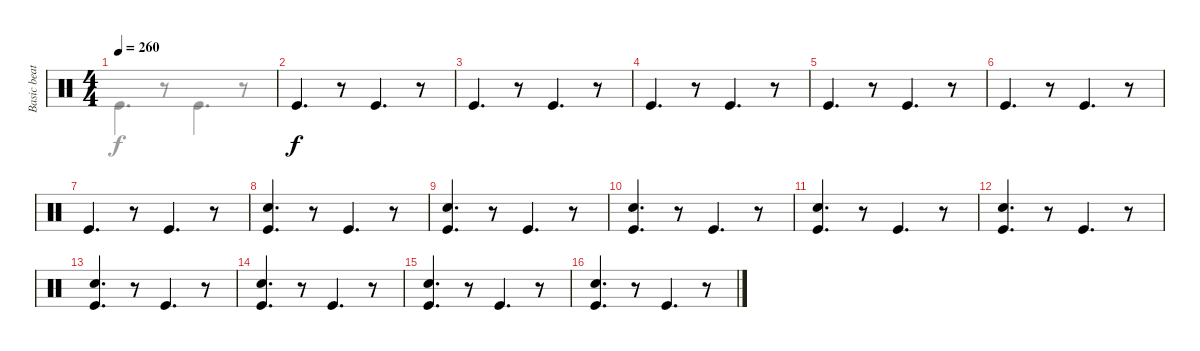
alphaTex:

\track ("Basic beat" "Basic beat") {instrument percussion}
\staff {score}
\articulation defaults
\voice
\ts (4 4)
\tempo 260
\clef neutral
\ks c
|
"Kick (hit)".4{d} r.8 "Kick (hit)".4{d} r.8 |
"Kick (hit)".4{d} r.8 "Kick (hit)".4{d} r.8 |
"Kick (hit)".4{d} r.8 "Kick (hit)".4{d} r.8 |
"Kick (hit)".4{d} r.8 "Kick (hit)".4{d} r.8 |
"Kick (hit)".4{d} r.8 "Kick (hit)".4{d} r.8 |
"Kick (hit)".4{d} r.8 "Kick (hit)".4{d} r.8 |
("Snare (hit) 2" "Kick (hit)").4{d} r.8 "Kick (hit)".4{d} r.8 |
("Snare (hit) 2" "Kick (hit)").4{d} r.8 "Kick (hit)".4{d} r.8 |
("Snare (hit) 2" "Kick (hit)").4{d} r.8 "Kick (hit)".4{d} r.8 |
("Snare (hit) 2" "Kick (hit)").4{d} r.8 "Kick (hit)".4{d} r.8 |
("Snare (hit) 2" "Kick (hit)").4{d} r.8 "Kick (hit)".4{d} r.8 |
("Snare (hit) 2" "Kick (hit)").4{d} r.8 "Kick (hit)".4{d} r.8 |
("Snare (hit) 2" "Kick (hit)").4{d} r.8 "Kick (hit)".4{d} r.8 |
("Snare (hit) 2" "Kick (hit)").4{d} r.8 "Kick (hit)".4{d} r.8 |
("Snare (hit) 2" "Kick (hit)").4{d} r.8 "Kick (hit)".4{d} r.8
\voice
\clef neutral
\ottava regular
\simile none
\ks c "Kick (hit)".4{d dy f}
r.8 "Kick (hit)".4{d} r.8 |
|
|
|
|
|
|
|
|
|
|
|
|
|
|
